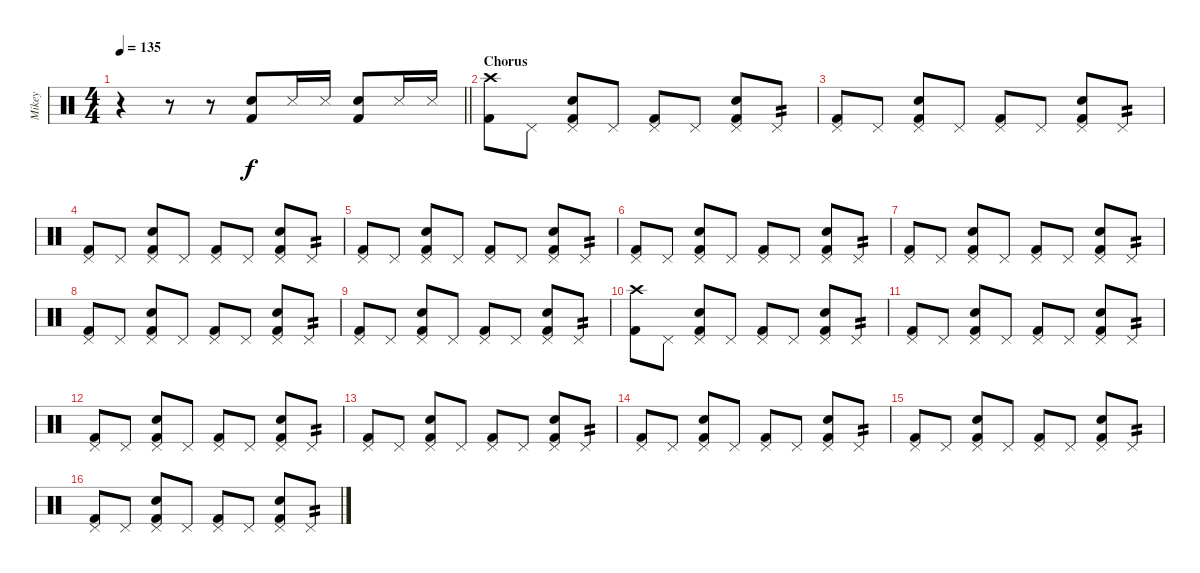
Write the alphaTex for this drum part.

\track ("Mikey" "Mikey") {instrument percussion}
\staff {score}
\articulation defaults
\ts (4 4)
\tempo 135
\clef neutral
\barLineRight lightlight
\ks c
r.4{dy f} r.8 r.8 ("Snare (hit) 2" "Kick (hit) 2").8 "Snare (side stick) 3".16 "Snare (side stick) 3".16 ("Snare (hit) 2" "Kick (hit) 2").8 "Snare (side stick) 3".16 "Snare (side stick) 3".16 |
\section ("" "Chorus")
("Crash high (hit)" "Kick (hit) 2").8 "Pedal Hi-Hat (hit)".8 ("Pedal Hi-Hat (hit)" "Snare (hit) 2" "Kick (hit) 2").8 "Pedal Hi-Hat (hit)".8 ("Pedal Hi-Hat (hit)" "Kick (hit) 2").8 "Pedal Hi-Hat (hit)".8 ("Pedal Hi-Hat (hit)" "Snare (hit) 2" "Kick (hit) 2").8 "Pedal Hi-Hat (hit)".8{tp 2} |
("Pedal Hi-Hat (hit)" "Kick (hit) 2").8 "Pedal Hi-Hat (hit)".8 ("Pedal Hi-Hat (hit)" "Snare (hit) 2" "Kick (hit) 2").8 "Pedal Hi-Hat (hit)".8 ("Pedal Hi-Hat (hit)" "Kick (hit) 2").8 "Pedal Hi-Hat (hit)".8 ("Pedal Hi-Hat (hit)" "Snare (hit) 2" "Kick (hit) 2").8 "Pedal Hi-Hat (hit)".8{tp 2} |
("Pedal Hi-Hat (hit)" "Kick (hit) 2").8 "Pedal Hi-Hat (hit)".8 ("Pedal Hi-Hat (hit)" "Snare (hit) 2" "Kick (hit) 2").8 "Pedal Hi-Hat (hit)".8 ("Pedal Hi-Hat (hit)" "Kick (hit) 2").8 "Pedal Hi-Hat (hit)".8 ("Pedal Hi-Hat (hit)" "Snare (hit) 2" "Kick (hit) 2").8 "Pedal Hi-Hat (hit)".8{tp 2} |
("Pedal Hi-Hat (hit)" "Kick (hit) 2").8 "Pedal Hi-Hat (hit)".8 ("Pedal Hi-Hat (hit)" "Snare (hit) 2" "Kick (hit) 2").8 "Pedal Hi-Hat (hit)".8 ("Pedal Hi-Hat (hit)" "Kick (hit) 2").8 "Pedal Hi-Hat (hit)".8 ("Pedal Hi-Hat (hit)" "Snare (hit) 2" "Kick (hit) 2").8 "Pedal Hi-Hat (hit)".8{tp 2} |
("Pedal Hi-Hat (hit)" "Kick (hit) 2").8 "Pedal Hi-Hat (hit)".8 ("Pedal Hi-Hat (hit)" "Snare (hit) 2" "Kick (hit) 2").8 "Pedal Hi-Hat (hit)".8 ("Pedal Hi-Hat (hit)" "Kick (hit) 2").8 "Pedal Hi-Hat (hit)".8 ("Pedal Hi-Hat (hit)" "Snare (hit) 2" "Kick (hit) 2").8 "Pedal Hi-Hat (hit)".8{tp 2} |
("Pedal Hi-Hat (hit)" "Kick (hit) 2").8 "Pedal Hi-Hat (hit)".8 ("Pedal Hi-Hat (hit)" "Snare (hit) 2" "Kick (hit) 2").8 "Pedal Hi-Hat (hit)".8 ("Pedal Hi-Hat (hit)" "Kick (hit) 2").8 "Pedal Hi-Hat (hit)".8 ("Pedal Hi-Hat (hit)" "Snare (hit) 2" "Kick (hit) 2").8 "Pedal Hi-Hat (hit)".8{tp 2} |
("Pedal Hi-Hat (hit)" "Kick (hit) 2").8 "Pedal Hi-Hat (hit)".8 ("Pedal Hi-Hat (hit)" "Snare (hit) 2" "Kick (hit) 2").8 "Pedal Hi-Hat (hit)".8 ("Pedal Hi-Hat (hit)" "Kick (hit) 2").8 "Pedal Hi-Hat (hit)".8 ("Pedal Hi-Hat (hit)" "Snare (hit) 2" "Kick (hit) 2").8 "Pedal Hi-Hat (hit)".8{tp 2} |
("Pedal Hi-Hat (hit)" "Kick (hit) 2").8 "Pedal Hi-Hat (hit)".8 ("Pedal Hi-Hat (hit)" "Snare (hit) 2" "Kick (hit) 2").8 "Pedal Hi-Hat (hit)".8 ("Pedal Hi-Hat (hit)" "Kick (hit) 2").8 "Pedal Hi-Hat (hit)".8 ("Pedal Hi-Hat (hit)" "Snare (hit) 2" "Kick (hit) 2").8 "Pedal Hi-Hat (hit)".8{tp 2} |
("Crash high (hit)" "Kick (hit) 2").8 "Pedal Hi-Hat (hit)".8 ("Pedal Hi-Hat (hit)" "Snare (hit) 2" "Kick (hit) 2").8 "Pedal Hi-Hat (hit)".8 ("Pedal Hi-Hat (hit)" "Kick (hit) 2").8 "Pedal Hi-Hat (hit)".8 ("Pedal Hi-Hat (hit)" "Snare (hit) 2" "Kick (hit) 2").8 "Pedal Hi-Hat (hit)".8{tp 2} |
("Pedal Hi-Hat (hit)" "Kick (hit) 2").8 "Pedal Hi-Hat (hit)".8 ("Pedal Hi-Hat (hit)" "Snare (hit) 2" "Kick (hit) 2").8 "Pedal Hi-Hat (hit)".8 ("Pedal Hi-Hat (hit)" "Kick (hit) 2").8 "Pedal Hi-Hat (hit)".8 ("Pedal Hi-Hat (hit)" "Snare (hit) 2" "Kick (hit) 2").8 "Pedal Hi-Hat (hit)".8{tp 2} |
("Pedal Hi-Hat (hit)" "Kick (hit) 2").8 "Pedal Hi-Hat (hit)".8 ("Pedal Hi-Hat (hit)" "Snare (hit) 2" "Kick (hit) 2").8 "Pedal Hi-Hat (hit)".8 ("Pedal Hi-Hat (hit)" "Kick (hit) 2").8 "Pedal Hi-Hat (hit)".8 ("Pedal Hi-Hat (hit)" "Snare (hit) 2" "Kick (hit) 2").8 "Pedal Hi-Hat (hit)".8{tp 2} |
("Pedal Hi-Hat (hit)" "Kick (hit) 2").8 "Pedal Hi-Hat (hit)".8 ("Pedal Hi-Hat (hit)" "Snare (hit) 2" "Kick (hit) 2").8 "Pedal Hi-Hat (hit)".8 ("Pedal Hi-Hat (hit)" "Kick (hit) 2").8 "Pedal Hi-Hat (hit)".8 ("Pedal Hi-Hat (hit)" "Snare (hit) 2" "Kick (hit) 2").8 "Pedal Hi-Hat (hit)".8{tp 2} |
("Pedal Hi-Hat (hit)" "Kick (hit) 2").8 "Pedal Hi-Hat (hit)".8 ("Pedal Hi-Hat (hit)" "Snare (hit) 2" "Kick (hit) 2").8 "Pedal Hi-Hat (hit)".8 ("Pedal Hi-Hat (hit)" "Kick (hit) 2").8 "Pedal Hi-Hat (hit)".8 ("Pedal Hi-Hat (hit)" "Snare (hit) 2" "Kick (hit) 2").8 "Pedal Hi-Hat (hit)".8{tp 2} |
("Pedal Hi-Hat (hit)" "Kick (hit) 2").8 "Pedal Hi-Hat (hit)".8 ("Pedal Hi-Hat (hit)" "Snare (hit) 2" "Kick (hit) 2").8 "Pedal Hi-Hat (hit)".8 ("Pedal Hi-Hat (hit)" "Kick (hit) 2").8 "Pedal Hi-Hat (hit)".8 ("Pedal Hi-Hat (hit)" "Snare (hit) 2" "Kick (hit) 2").8 "Pedal Hi-Hat (hit)".8{tp 2} |
("Pedal Hi-Hat (hit)" "Kick (hit) 2").8 "Pedal Hi-Hat (hit)".8 ("Pedal Hi-Hat (hit)" "Snare (hit) 2" "Kick (hit) 2").8 "Pedal Hi-Hat (hit)".8 ("Pedal Hi-Hat (hit)" "Kick (hit) 2").8 "Pedal Hi-Hat (hit)".8 ("Pedal Hi-Hat (hit)" "Snare (hit) 2" "Kick (hit) 2").8 "Pedal Hi-Hat (hit)".8{tp 2}
